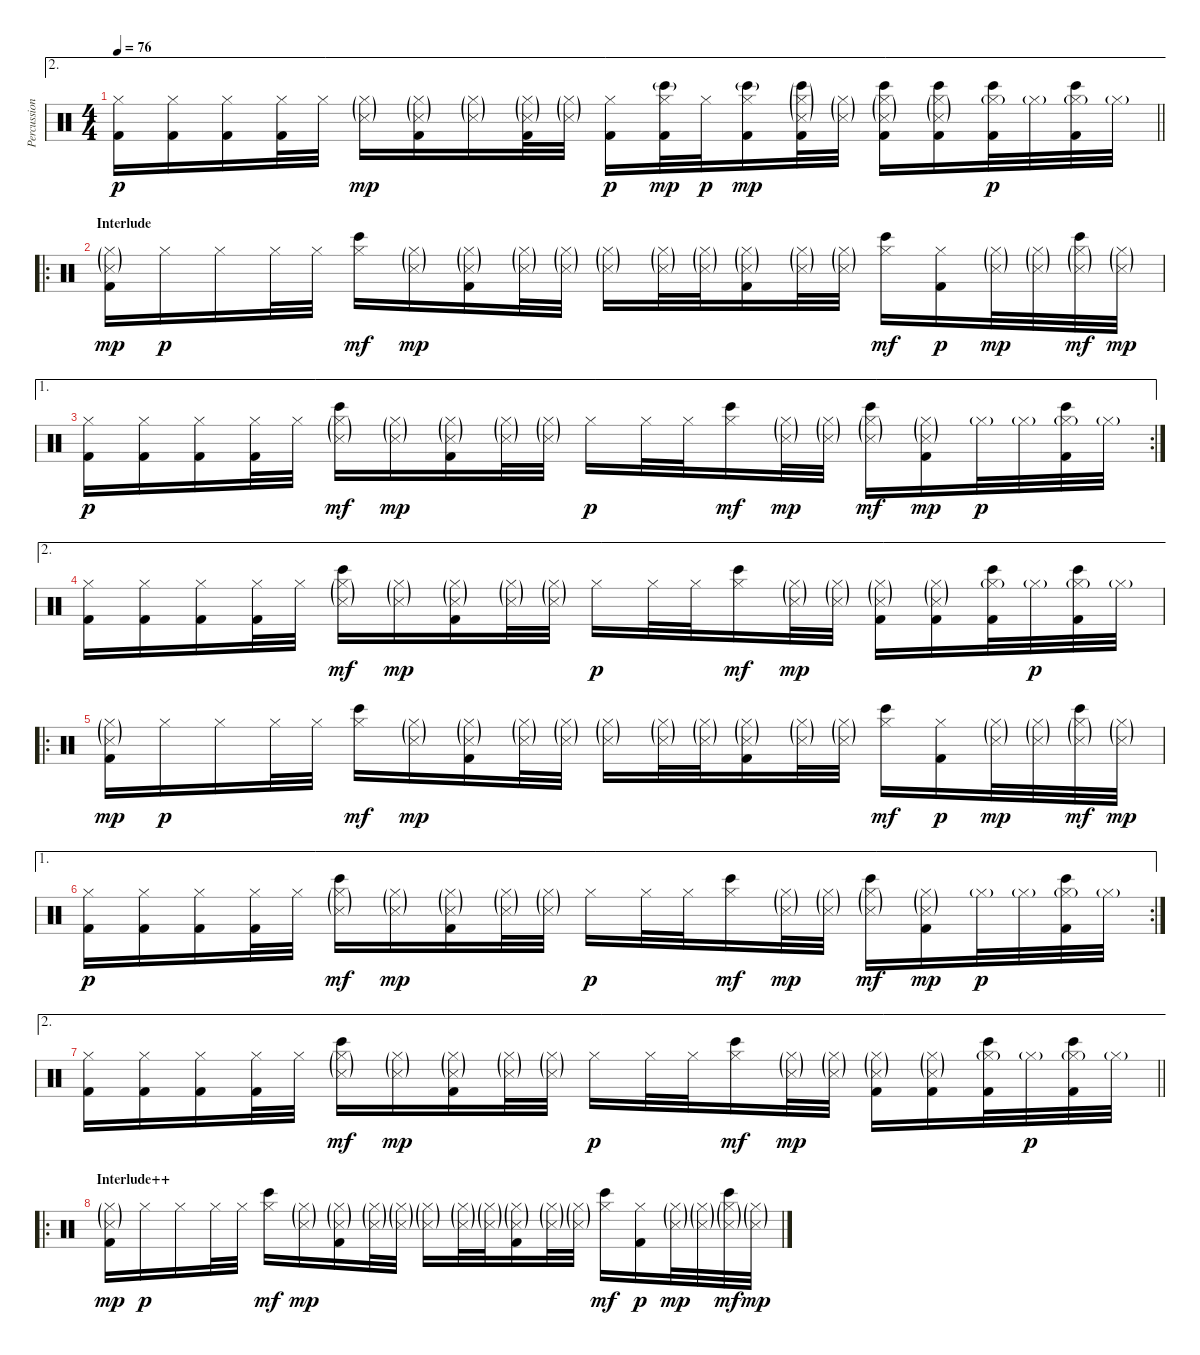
\track ("Percussion" "Percussion") {instrument percussion}
\staff {score}
\articulation defaults
\ae 2
\ts (4 4)
\tempo 76
\clef neutral
\barLineRight lightlight
\ks c
("Hi-Hat (closed)" "Kick (hit) 2").16{dy p} ("Hi-Hat (closed)" "Kick (hit) 2").16 ("Hi-Hat (closed)" "Kick (hit) 2").16 ("Hi-Hat (closed)" "Kick (hit) 2").32 "Hi-Hat (closed)".32 ("Hi-Hat (closed)"{g} "Snare (side stick) 3"{g}).16{dy mp} ("Hi-Hat (closed)"{g} "Snare (side stick) 3"{g} "Kick (hit) 2").16 ("Hi-Hat (closed)"{g} "Snare (side stick) 3"{g}).16 ("Hi-Hat (closed)"{g} "Snare (side stick) 3"{g} "Kick (hit) 2").32 ("Hi-Hat (closed)"{g} "Snare (side stick) 3"{g}).32 ("Hi-Hat (closed)" "Kick (hit) 2").16{dy p} ("Hi-Hat (closed)" "Bongo High (hit)"{g} "Kick (hit) 2").32{dy mp} "Hi-Hat (closed)".32{dy p} ("Hi-Hat (closed)" "Bongo High (hit)"{g} "Kick (hit) 2").16{dy mp} ("Hi-Hat (closed)"{g} "Snare (side stick) 3"{g} "Bongo High (hit)"{g} "Kick (hit) 2").32 ("Hi-Hat (closed)"{g} "Snare (side stick) 3"{g}).32 ("Hi-Hat (closed)"{g} "Snare (side stick) 3"{g} "Bongo High (hit)" "Kick (hit) 2").16 ("Hi-Hat (closed)"{g} "Snare (side stick) 3"{g} "Bongo High (hit)" "Kick (hit) 2").16 ("Hi-Hat (closed)"{g} "Bongo High (hit)" "Kick (hit) 2").32{dy p} "Hi-Hat (closed)"{g}.32 ("Hi-Hat (closed)"{g} "Bongo High (hit)" "Kick (hit) 2").32 "Hi-Hat (closed)"{g}.32 |
\ro
\section ("" "Interlude")
("Hi-Hat (closed)"{g} "Snare (side stick) 3"{g} "Kick (hit) 2").16{dy mp} "Hi-Hat (closed)".16{dy p} "Hi-Hat (closed)".16 "Hi-Hat (closed)".32 "Hi-Hat (closed)".32 ("Hi-Hat (closed)" "Bongo High (hit)").16{dy mf} ("Hi-Hat (closed)"{g} "Snare (side stick) 3"{g}).16{dy mp} ("Hi-Hat (closed)"{g} "Snare (side stick) 3"{g} "Kick (hit) 2").16 ("Hi-Hat (closed)"{g} "Snare (side stick) 3"{g}).32 ("Hi-Hat (closed)"{g} "Snare (side stick) 3"{g}).32 ("Hi-Hat (closed)"{g} "Snare (side stick) 3"{g}).16 ("Hi-Hat (closed)"{g} "Snare (side stick) 3"{g}).32 ("Hi-Hat (closed)"{g} "Snare (side stick) 3"{g}).32 ("Hi-Hat (closed)"{g} "Snare (side stick) 3"{g} "Kick (hit) 2").16 ("Hi-Hat (closed)"{g} "Snare (side stick) 3"{g}).32 ("Hi-Hat (closed)"{g} "Snare (side stick) 3"{g}).32 ("Hi-Hat (closed)" "Bongo High (hit)").16{dy mf} ("Hi-Hat (closed)" "Kick (hit) 2").16{dy p} ("Hi-Hat (closed)"{g} "Snare (side stick) 3"{g}).32{dy mp} ("Hi-Hat (closed)"{g} "Snare (side stick) 3"{g}).32 ("Hi-Hat (closed)"{g} "Snare (side stick) 3"{g} "Bongo High (hit)").32{dy mf} ("Hi-Hat (closed)"{g} "Snare (side stick) 3"{g}).32{dy mp} |
\ae 1
\rc 2
("Hi-Hat (closed)" "Kick (hit) 2").16{dy p} ("Hi-Hat (closed)" "Kick (hit) 2").16 ("Hi-Hat (closed)" "Kick (hit) 2").16 ("Hi-Hat (closed)" "Kick (hit) 2").32 "Hi-Hat (closed)".32 ("Hi-Hat (closed)"{g} "Snare (side stick) 3"{g} "Bongo High (hit)").16{dy mf} ("Hi-Hat (closed)"{g} "Snare (side stick) 3"{g}).16{dy mp} ("Hi-Hat (closed)"{g} "Snare (side stick) 3"{g} "Kick (hit) 2").16 ("Hi-Hat (closed)"{g} "Snare (side stick) 3"{g}).32 ("Hi-Hat (closed)"{g} "Snare (side stick) 3"{g}).32 "Hi-Hat (closed)".16{dy p} "Hi-Hat (closed)".32 "Hi-Hat (closed)".32 ("Hi-Hat (closed)" "Bongo High (hit)").16{dy mf} ("Hi-Hat (closed)"{g} "Snare (side stick) 3"{g}).32{dy mp} ("Hi-Hat (closed)"{g} "Snare (side stick) 3"{g}).32 ("Hi-Hat (closed)"{g} "Snare (side stick) 3"{g} "Bongo High (hit)").16{dy mf} ("Hi-Hat (closed)"{g} "Snare (side stick) 3"{g} "Kick (hit) 2").16{dy mp} "Hi-Hat (closed)"{g}.32{dy p} "Hi-Hat (closed)"{g}.32 ("Hi-Hat (closed)"{g} "Bongo High (hit)" "Kick (hit) 2").32 "Hi-Hat (closed)"{g}.32 |
\ae 2
("Hi-Hat (closed)" "Kick (hit) 2").16 ("Hi-Hat (closed)" "Kick (hit) 2").16 ("Hi-Hat (closed)" "Kick (hit) 2").16 ("Hi-Hat (closed)" "Kick (hit) 2").32 "Hi-Hat (closed)".32 ("Hi-Hat (closed)"{g} "Snare (side stick) 3"{g} "Bongo High (hit)").16{dy mf} ("Hi-Hat (closed)"{g} "Snare (side stick) 3"{g}).16{dy mp} ("Hi-Hat (closed)"{g} "Snare (side stick) 3"{g} "Kick (hit) 2").16 ("Hi-Hat (closed)"{g} "Snare (side stick) 3"{g}).32 ("Hi-Hat (closed)"{g} "Snare (side stick) 3"{g}).32 "Hi-Hat (closed)".16{dy p} "Hi-Hat (closed)".32 "Hi-Hat (closed)".32 ("Hi-Hat (closed)" "Bongo High (hit)").16{dy mf} ("Hi-Hat (closed)"{g} "Snare (side stick) 3"{g}).32{dy mp} ("Hi-Hat (closed)"{g} "Snare (side stick) 3"{g}).32 ("Hi-Hat (closed)"{g} "Snare (side stick) 3"{g} "Kick (hit) 2").16 ("Hi-Hat (closed)"{g} "Snare (side stick) 3"{g} "Kick (hit) 2").16 ("Hi-Hat (closed)"{g} "Bongo High (hit)" "Kick (hit) 2").32 "Hi-Hat (closed)"{g}.32{dy p} ("Hi-Hat (closed)"{g} "Bongo High (hit)" "Kick (hit) 2").32 "Hi-Hat (closed)"{g}.32 |
\ro
("Hi-Hat (closed)"{g} "Snare (side stick) 3"{g} "Kick (hit) 2").16{dy mp} "Hi-Hat (closed)".16{dy p} "Hi-Hat (closed)".16 "Hi-Hat (closed)".32 "Hi-Hat (closed)".32 ("Hi-Hat (closed)" "Bongo High (hit)").16{dy mf} ("Hi-Hat (closed)"{g} "Snare (side stick) 3"{g}).16{dy mp} ("Hi-Hat (closed)"{g} "Snare (side stick) 3"{g} "Kick (hit) 2").16 ("Hi-Hat (closed)"{g} "Snare (side stick) 3"{g}).32 ("Hi-Hat (closed)"{g} "Snare (side stick) 3"{g}).32 ("Hi-Hat (closed)"{g} "Snare (side stick) 3"{g}).16 ("Hi-Hat (closed)"{g} "Snare (side stick) 3"{g}).32 ("Hi-Hat (closed)"{g} "Snare (side stick) 3"{g}).32 ("Hi-Hat (closed)"{g} "Snare (side stick) 3"{g} "Kick (hit) 2").16 ("Hi-Hat (closed)"{g} "Snare (side stick) 3"{g}).32 ("Hi-Hat (closed)"{g} "Snare (side stick) 3"{g}).32 ("Hi-Hat (closed)" "Bongo High (hit)").16{dy mf} ("Hi-Hat (closed)" "Kick (hit) 2").16{dy p} ("Hi-Hat (closed)"{g} "Snare (side stick) 3"{g}).32{dy mp} ("Hi-Hat (closed)"{g} "Snare (side stick) 3"{g}).32 ("Hi-Hat (closed)"{g} "Snare (side stick) 3"{g} "Bongo High (hit)").32{dy mf} ("Hi-Hat (closed)"{g} "Snare (side stick) 3"{g}).32{dy mp} |
\ae 1
\rc 2
("Hi-Hat (closed)" "Kick (hit) 2").16{dy p} ("Hi-Hat (closed)" "Kick (hit) 2").16 ("Hi-Hat (closed)" "Kick (hit) 2").16 ("Hi-Hat (closed)" "Kick (hit) 2").32 "Hi-Hat (closed)".32 ("Hi-Hat (closed)"{g} "Snare (side stick) 3"{g} "Bongo High (hit)").16{dy mf} ("Hi-Hat (closed)"{g} "Snare (side stick) 3"{g}).16{dy mp} ("Hi-Hat (closed)"{g} "Snare (side stick) 3"{g} "Kick (hit) 2").16 ("Hi-Hat (closed)"{g} "Snare (side stick) 3"{g}).32 ("Hi-Hat (closed)"{g} "Snare (side stick) 3"{g}).32 "Hi-Hat (closed)".16{dy p} "Hi-Hat (closed)".32 "Hi-Hat (closed)".32 ("Hi-Hat (closed)" "Bongo High (hit)").16{dy mf} ("Hi-Hat (closed)"{g} "Snare (side stick) 3"{g}).32{dy mp} ("Hi-Hat (closed)"{g} "Snare (side stick) 3"{g}).32 ("Hi-Hat (closed)"{g} "Snare (side stick) 3"{g} "Bongo High (hit)").16{dy mf} ("Hi-Hat (closed)"{g} "Snare (side stick) 3"{g} "Kick (hit) 2").16{dy mp} "Hi-Hat (closed)"{g}.32{dy p} "Hi-Hat (closed)"{g}.32 ("Hi-Hat (closed)"{g} "Bongo High (hit)" "Kick (hit) 2").32 "Hi-Hat (closed)"{g}.32 |
\ae 2
\barLineRight lightlight
("Hi-Hat (closed)" "Kick (hit) 2").16 ("Hi-Hat (closed)" "Kick (hit) 2").16 ("Hi-Hat (closed)" "Kick (hit) 2").16 ("Hi-Hat (closed)" "Kick (hit) 2").32 "Hi-Hat (closed)".32 ("Hi-Hat (closed)"{g} "Snare (side stick) 3"{g} "Bongo High (hit)").16{dy mf} ("Hi-Hat (closed)"{g} "Snare (side stick) 3"{g}).16{dy mp} ("Hi-Hat (closed)"{g} "Snare (side stick) 3"{g} "Kick (hit) 2").16 ("Hi-Hat (closed)"{g} "Snare (side stick) 3"{g}).32 ("Hi-Hat (closed)"{g} "Snare (side stick) 3"{g}).32 "Hi-Hat (closed)".16{dy p} "Hi-Hat (closed)".32 "Hi-Hat (closed)".32 ("Hi-Hat (closed)" "Bongo High (hit)").16{dy mf} ("Hi-Hat (closed)"{g} "Snare (side stick) 3"{g}).32{dy mp} ("Hi-Hat (closed)"{g} "Snare (side stick) 3"{g}).32 ("Hi-Hat (closed)"{g} "Snare (side stick) 3"{g} "Kick (hit) 2").16 ("Hi-Hat (closed)"{g} "Snare (side stick) 3"{g} "Kick (hit) 2").16 ("Hi-Hat (closed)"{g} "Bongo High (hit)" "Kick (hit) 2").32 "Hi-Hat (closed)"{g}.32{dy p} ("Hi-Hat (closed)"{g} "Bongo High (hit)" "Kick (hit) 2").32 "Hi-Hat (closed)"{g}.32 |
\ro
\section ("" "Interlude++")
("Hi-Hat (closed)"{g} "Snare (side stick) 3"{g} "Kick (hit) 2").16{dy mp} "Hi-Hat (closed)".16{dy p} "Hi-Hat (closed)".16 "Hi-Hat (closed)".32 "Hi-Hat (closed)".32 ("Hi-Hat (closed)" "Bongo High (hit)").16{dy mf} ("Hi-Hat (closed)"{g} "Snare (side stick) 3"{g}).16{dy mp} ("Hi-Hat (closed)"{g} "Snare (side stick) 3"{g} "Kick (hit) 2").16 ("Hi-Hat (closed)"{g} "Snare (side stick) 3"{g}).32 ("Hi-Hat (closed)"{g} "Snare (side stick) 3"{g}).32 ("Hi-Hat (closed)"{g} "Snare (side stick) 3"{g}).16 ("Hi-Hat (closed)"{g} "Snare (side stick) 3"{g}).32 ("Hi-Hat (closed)"{g} "Snare (side stick) 3"{g}).32 ("Hi-Hat (closed)"{g} "Snare (side stick) 3"{g} "Kick (hit) 2").16 ("Hi-Hat (closed)"{g} "Snare (side stick) 3"{g}).32 ("Hi-Hat (closed)"{g} "Snare (side stick) 3"{g}).32 ("Hi-Hat (closed)" "Bongo High (hit)").16{dy mf} ("Hi-Hat (closed)" "Kick (hit) 2").16{dy p} ("Hi-Hat (closed)"{g} "Snare (side stick) 3"{g}).32{dy mp} ("Hi-Hat (closed)"{g} "Snare (side stick) 3"{g}).32 ("Hi-Hat (closed)"{g} "Snare (side stick) 3"{g} "Bongo High (hit)").32{dy mf} ("Hi-Hat (closed)"{g} "Snare (side stick) 3"{g}).32{dy mp}
